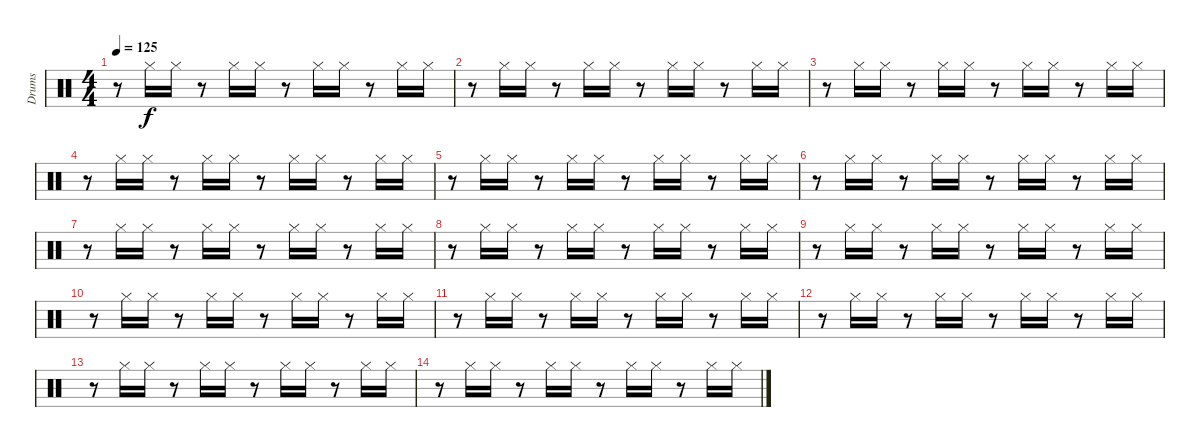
\track ("Drums" "Drums") {instrument percussion}
\staff {score}
\articulation defaults
\ts (4 4)
\tempo 125
\clef neutral
\ks c
r.8{dy f} "Hi-Hat (closed)".16 "Hi-Hat (closed)".16 r.8 "Hi-Hat (closed)".16 "Hi-Hat (closed)".16 r.8 "Hi-Hat (closed)".16 "Hi-Hat (closed)".16 r.8 "Hi-Hat (closed)".16 "Hi-Hat (closed)".16 |
r.8 "Hi-Hat (closed)".16 "Hi-Hat (closed)".16 r.8 "Hi-Hat (closed)".16 "Hi-Hat (closed)".16 r.8 "Hi-Hat (closed)".16 "Hi-Hat (closed)".16 r.8 "Hi-Hat (closed)".16 "Hi-Hat (closed)".16 |
r.8 "Hi-Hat (closed)".16 "Hi-Hat (closed)".16 r.8 "Hi-Hat (closed)".16 "Hi-Hat (closed)".16 r.8 "Hi-Hat (closed)".16 "Hi-Hat (closed)".16 r.8 "Hi-Hat (closed)".16 "Hi-Hat (closed)".16 |
r.8 "Hi-Hat (closed)".16 "Hi-Hat (closed)".16 r.8 "Hi-Hat (closed)".16 "Hi-Hat (closed)".16 r.8 "Hi-Hat (closed)".16 "Hi-Hat (closed)".16 r.8 "Hi-Hat (closed)".16 "Hi-Hat (closed)".16 |
r.8 "Hi-Hat (closed)".16 "Hi-Hat (closed)".16 r.8 "Hi-Hat (closed)".16 "Hi-Hat (closed)".16 r.8 "Hi-Hat (closed)".16 "Hi-Hat (closed)".16 r.8 "Hi-Hat (closed)".16 "Hi-Hat (closed)".16 |
r.8 "Hi-Hat (closed)".16 "Hi-Hat (closed)".16 r.8 "Hi-Hat (closed)".16 "Hi-Hat (closed)".16 r.8 "Hi-Hat (closed)".16 "Hi-Hat (closed)".16 r.8 "Hi-Hat (closed)".16 "Hi-Hat (closed)".16 |
r.8 "Hi-Hat (closed)".16 "Hi-Hat (closed)".16 r.8 "Hi-Hat (closed)".16 "Hi-Hat (closed)".16 r.8 "Hi-Hat (closed)".16 "Hi-Hat (closed)".16 r.8 "Hi-Hat (closed)".16 "Hi-Hat (closed)".16 |
r.8 "Hi-Hat (closed)".16 "Hi-Hat (closed)".16 r.8 "Hi-Hat (closed)".16 "Hi-Hat (closed)".16 r.8 "Hi-Hat (closed)".16 "Hi-Hat (closed)".16 r.8 "Hi-Hat (closed)".16 "Hi-Hat (closed)".16 |
r.8 "Hi-Hat (closed)".16 "Hi-Hat (closed)".16 r.8 "Hi-Hat (closed)".16 "Hi-Hat (closed)".16 r.8 "Hi-Hat (closed)".16 "Hi-Hat (closed)".16 r.8 "Hi-Hat (closed)".16 "Hi-Hat (closed)".16 |
r.8 "Hi-Hat (closed)".16 "Hi-Hat (closed)".16 r.8 "Hi-Hat (closed)".16 "Hi-Hat (closed)".16 r.8 "Hi-Hat (closed)".16 "Hi-Hat (closed)".16 r.8 "Hi-Hat (closed)".16 "Hi-Hat (closed)".16 |
r.8 "Hi-Hat (closed)".16 "Hi-Hat (closed)".16 r.8 "Hi-Hat (closed)".16 "Hi-Hat (closed)".16 r.8 "Hi-Hat (closed)".16 "Hi-Hat (closed)".16 r.8 "Hi-Hat (closed)".16 "Hi-Hat (closed)".16 |
r.8 "Hi-Hat (closed)".16 "Hi-Hat (closed)".16 r.8 "Hi-Hat (closed)".16 "Hi-Hat (closed)".16 r.8 "Hi-Hat (closed)".16 "Hi-Hat (closed)".16 r.8 "Hi-Hat (closed)".16 "Hi-Hat (closed)".16 |
r.8 "Hi-Hat (closed)".16 "Hi-Hat (closed)".16 r.8 "Hi-Hat (closed)".16 "Hi-Hat (closed)".16 r.8 "Hi-Hat (closed)".16 "Hi-Hat (closed)".16 r.8 "Hi-Hat (closed)".16 "Hi-Hat (closed)".16 |
r.8 "Hi-Hat (closed)".16 "Hi-Hat (closed)".16 r.8 "Hi-Hat (closed)".16 "Hi-Hat (closed)".16 r.8 "Hi-Hat (closed)".16 "Hi-Hat (closed)".16 r.8 "Hi-Hat (closed)".16 "Hi-Hat (closed)".16
